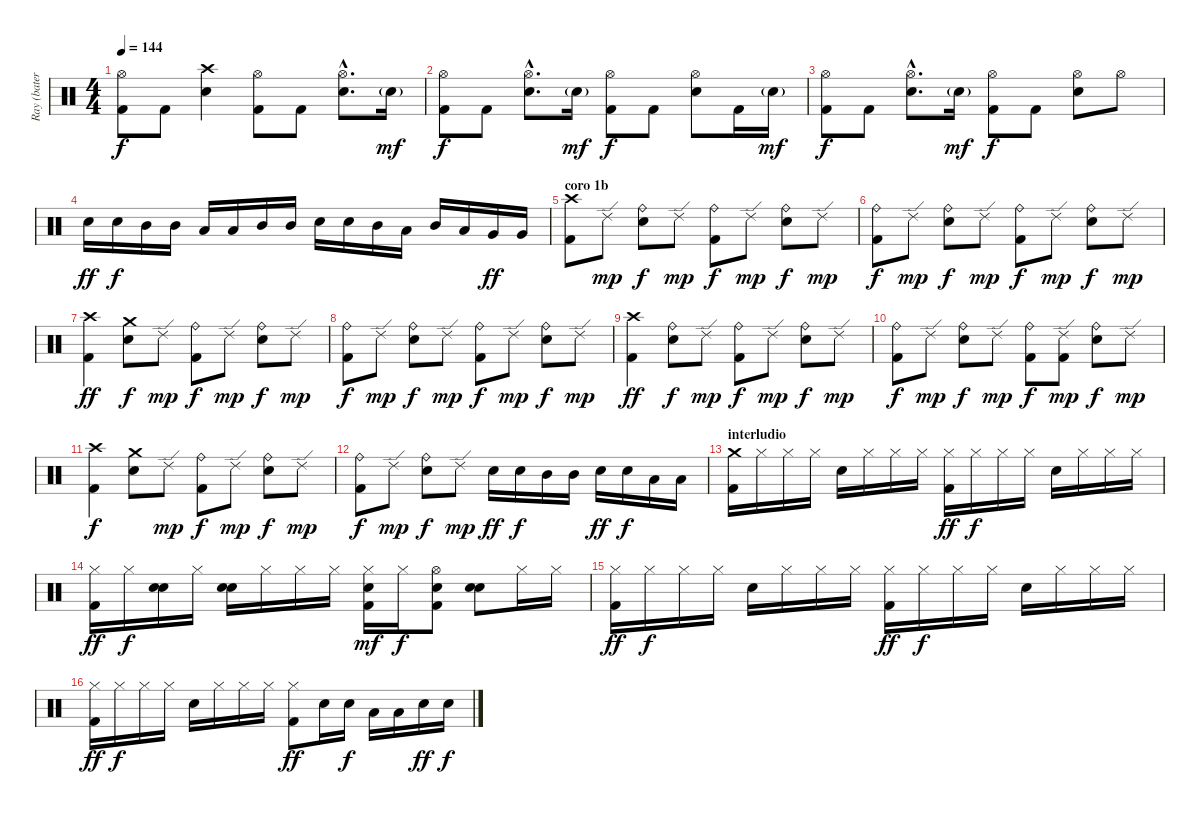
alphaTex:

\track ("Ray (batería)" "Ray (bater") {instrument percussion}
\staff {score}
\articulation defaults
\ts (4 4)
\tempo 144
\clef neutral
\ks c
("Hi-Hat (open)" "Kick (hit) 2").8{dy f} "Kick (hit) 2".8 ("Crash high (hit)" "Snare (hit) 2").4 ("Hi-Hat (open)" "Kick (hit) 2").8 "Kick (hit) 2".8 ("Hi-Hat (open)"{hac} "Snare (hit) 2"{hac}).8{d} "Snare (hit) 2"{g}.16{dy mf} |
("Hi-Hat (open)" "Kick (hit) 2").8{dy f} "Kick (hit) 2".8 ("Hi-Hat (open)"{hac} "Snare (hit) 2"{hac}).8{d} "Snare (hit) 2"{g}.16{dy mf} ("Hi-Hat (open)" "Kick (hit) 2").8{dy f} "Kick (hit) 2".8 ("Hi-Hat (open)" "Snare (hit) 2").8 "Kick (hit) 2".16 "Snare (hit) 2"{g}.16{dy mf} |
("Hi-Hat (open)" "Kick (hit) 2").8{dy f} "Kick (hit) 2".8 ("Hi-Hat (open)"{hac} "Snare (hit) 2"{hac}).8{d} "Snare (hit) 2"{g}.16{dy mf} ("Hi-Hat (open)" "Kick (hit) 2").8{dy f} "Kick (hit) 2".8 ("Hi-Hat (open)" "Snare (hit) 2").8 "Hi-Hat (open)".8 |
"Snare (hit) 2".16{dy ff} "Snare (hit) 2".16{dy f} "Mid Tom (hit)".16 "Mid Tom (hit)".16 "Low Tom (hit)".16 "Low Tom (hit)".16 "Mid Tom (hit)".16 "Mid Tom (hit)".16 "Snare (hit) 2".16 "Snare (hit) 2".16 "Mid Tom (hit)".16 "Low Tom (hit)".16 "Mid Tom (hit)".16 "Low Tom (hit)".16 "Very Low Tom (hit)".16{dy ff} "Very Low Tom (hit)".16 |
\section ("" "coro 1b")
("Crash high (hit)" "Kick (hit) 2").8 "Ride (edge) 2".8{dy mp} ("Ride (bell)" "Snare (hit) 2").8{dy f} "Ride (edge) 2".8{dy mp} ("Ride (bell)" "Kick (hit) 2").8{dy f} "Ride (edge) 2".8{dy mp} ("Ride (bell)" "Snare (hit) 2").8{dy f} "Ride (edge) 2".8{dy mp} |
("Ride (bell)" "Kick (hit) 2").8{dy f} "Ride (edge) 2".8{dy mp} ("Ride (bell)" "Snare (hit) 2").8{dy f} "Ride (edge) 2".8{dy mp} ("Ride (bell)" "Kick (hit) 2").8{dy f} "Ride (edge) 2".8{dy mp} ("Ride (bell)" "Snare (hit) 2").8{dy f} "Ride (edge) 2".8{dy mp} |
("Crash high (hit)" "Kick (hit) 2").4{dy ff} ("Crash medium (hit)" "Snare (hit) 2").8{dy f} "Ride (edge) 2".8{dy mp} ("Ride (bell)" "Kick (hit) 2").8{dy f} "Ride (edge) 2".8{dy mp} ("Ride (bell)" "Snare (hit) 2").8{dy f} "Ride (edge) 2".8{dy mp} |
("Ride (bell)" "Kick (hit) 2").8{dy f} "Ride (edge) 2".8{dy mp} ("Ride (bell)" "Snare (hit) 2").8{dy f} "Ride (edge) 2".8{dy mp} ("Ride (bell)" "Kick (hit) 2").8{dy f} "Ride (edge) 2".8{dy mp} ("Ride (bell)" "Snare (hit) 2").8{dy f} "Ride (edge) 2".8{dy mp} |
("Crash high (hit)" "Kick (hit) 2").4{dy ff} ("Ride (bell)" "Snare (hit) 2").8{dy f} "Ride (edge) 2".8{dy mp} ("Ride (bell)" "Kick (hit) 2").8{dy f} "Ride (edge) 2".8{dy mp} ("Ride (bell)" "Snare (hit) 2").8{dy f} "Ride (edge) 2".8{dy mp} |
("Ride (bell)" "Kick (hit) 2").8{dy f} "Ride (edge) 2".8{dy mp} ("Ride (bell)" "Snare (hit) 2").8{dy f} "Ride (edge) 2".8{dy mp} ("Ride (bell)" "Kick (hit) 2").8{dy f} ("Ride (edge) 2" "Kick (hit) 2").8{dy mp} ("Ride (bell)" "Snare (hit) 2").8{dy f} "Ride (edge) 2".8{dy mp} |
("Crash high (hit)" "Kick (hit) 2").4{dy f} ("Crash medium (hit)" "Snare (hit) 2").8 "Ride (edge) 2".8{dy mp} ("Ride (bell)" "Kick (hit) 2").8{dy f} "Ride (edge) 2".8{dy mp} ("Ride (bell)" "Snare (hit) 2").8{dy f} "Ride (edge) 2".8{dy mp} |
("Ride (bell)" "Kick (hit) 2").8{dy f} "Ride (edge) 2".8{dy mp} ("Ride (bell)" "Snare (hit) 2").8{dy f} "Ride (edge) 2".8{dy mp} "Snare (hit) 2".16{dy ff} "Snare (hit) 2".16{dy f} "Mid Tom (hit)".16 "Mid Tom (hit)".16 "Snare (hit) 2".16{dy ff} "Snare (hit) 2".16{dy f} "Low Tom (hit)".16 "Low Tom (hit)".16 |
\section ("" "interludio")
("Crash medium (hit)" "Kick (hit) 2").16 "Hi-Hat (closed)".16 "Hi-Hat (closed)".16 "Hi-Hat (closed)".16 "Snare (hit) 2".16 "Hi-Hat (closed)".16 "Hi-Hat (closed)".16 "Hi-Hat (closed)".16 ("Hi-Hat (closed)" "Kick (hit) 2").16{dy ff} "Hi-Hat (closed)".16{dy f} "Hi-Hat (closed)".16 "Hi-Hat (closed)".16 "Snare (hit) 2".16 "Hi-Hat (closed)".16 "Hi-Hat (closed)".16 "Hi-Hat (closed)".16 |
("Hi-Hat (closed)" "Kick (hit) 2").16{dy ff} "Hi-Hat (closed)".16{dy f} ("Hand Clap (hit)" "Snare (hit) 2").16 "Hi-Hat (closed)".16 ("Hand Clap (hit)" "Snare (hit) 2").16 "Hi-Hat (closed)".16 "Hi-Hat (closed)".16 "Hi-Hat (closed)".16 ("Hi-Hat (closed)" "Hand Clap (hit)" "Kick (hit) 2").16{dy mf} "Hi-Hat (closed)".16{dy f} ("Hi-Hat (open)" "Hand Clap (hit)" "Kick (hit) 2").8 ("Hand Clap (hit)" "Snare (hit) 2").8 "Hi-Hat (closed)".16 "Hi-Hat (closed)".16 |
("Hi-Hat (closed)" "Kick (hit) 2").16{dy ff} "Hi-Hat (closed)".16{dy f} "Hi-Hat (closed)".16 "Hi-Hat (closed)".16 "Snare (hit) 2".16 "Hi-Hat (closed)".16 "Hi-Hat (closed)".16 "Hi-Hat (closed)".16 ("Hi-Hat (closed)" "Kick (hit) 2").16{dy ff} "Hi-Hat (closed)".16{dy f} "Hi-Hat (closed)".16 "Hi-Hat (closed)".16 "Snare (hit) 2".16 "Hi-Hat (closed)".16 "Hi-Hat (closed)".16 "Hi-Hat (closed)".16 |
("Hi-Hat (closed)" "Kick (hit) 2").16{dy ff} "Hi-Hat (closed)".16{dy f} "Hi-Hat (closed)".16 "Hi-Hat (closed)".16 "Snare (hit) 2".16 "Hi-Hat (closed)".16 "Hi-Hat (closed)".16 "Hi-Hat (closed)".16 ("Hi-Hat (closed)" "Kick (hit) 2").8{dy ff} "Snare (hit) 2".16 "Snare (hit) 2".16{dy f} "Low Tom (hit)".16 "Low Tom (hit)".16 "Snare (hit) 2".16{dy ff} "Snare (hit) 2".16{dy f}
